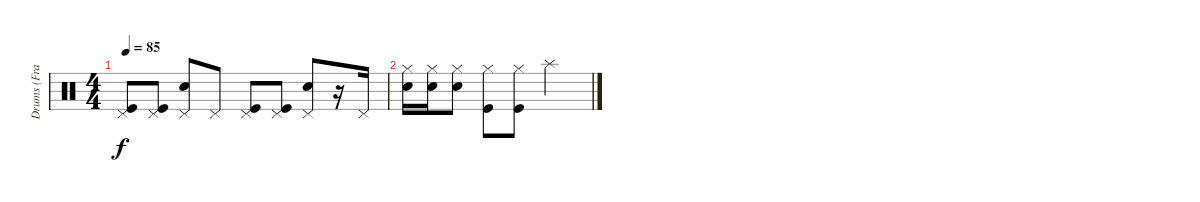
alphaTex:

\track ("Drums (Frank Ferrer)" "Drums (Fra") {instrument percussion}
\staff {score}
\articulation defaults
\ts (4 4)
\tempo 85
\clef neutral
\ks c
("Kick (hit)" "Pedal Hi-Hat (hit)").8{dy f} ("Kick (hit)" "Pedal Hi-Hat (hit)").8 ("Snare (hit) 2" "Pedal Hi-Hat (hit)").8 "Pedal Hi-Hat (hit)".8 ("Kick (hit)" "Pedal Hi-Hat (hit)").8 ("Kick (hit)" "Pedal Hi-Hat (hit)").8 ("Snare (hit) 2" "Pedal Hi-Hat (hit)").8 r.16 "Pedal Hi-Hat (hit)".16 |
("Snare (hit) 2" "Hi-Hat (closed)").16 ("Snare (hit) 2" "Hi-Hat (closed)").16 ("Snare (hit) 2" "Hi-Hat (closed)").8 ("Kick (hit)" "Hi-Hat (closed)").8 ("Kick (hit)" "Hi-Hat (closed)").8 "Splash (hit)".2
